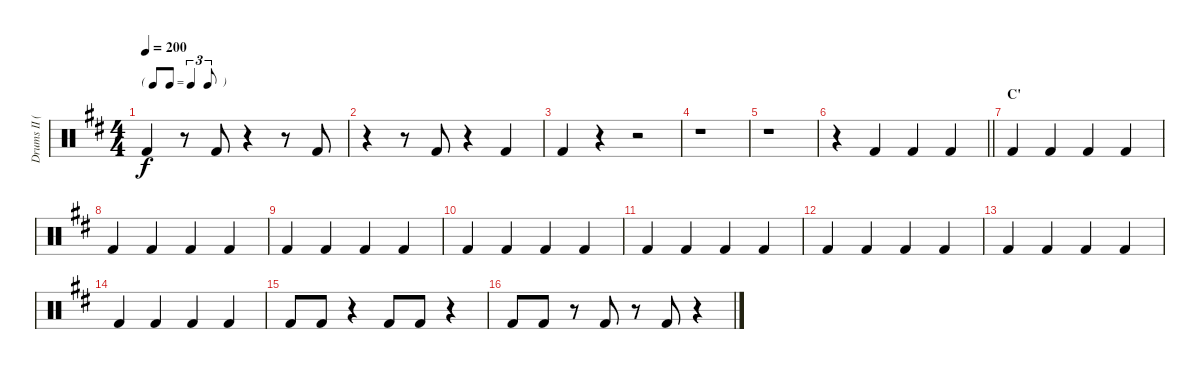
\track ("Drums II (Ruka)" "Drums II (") {instrument percussion}
\staff {score}
\articulation defaults
\ts (4 4)
\tf triplet8th
\tempo 200
\clef neutral
\ks d "Kick (hit) 2".4{dy f}
r.8 "Kick (hit) 2".8 r.4 r.8 "Kick (hit) 2".8 |
r.4 r.8 "Kick (hit) 2".8 r.4 "Kick (hit) 2".4 |
"Kick (hit) 2".4 r.4 r.2 |
r.1 |
r.1 |
\barLineRight lightlight
r.4 "Kick (hit) 2".4 "Kick (hit) 2".4 "Kick (hit) 2".4 |
\section ("" "C'")
"Kick (hit) 2".4 "Kick (hit) 2".4 "Kick (hit) 2".4 "Kick (hit) 2".4 |
"Kick (hit) 2".4 "Kick (hit) 2".4 "Kick (hit) 2".4 "Kick (hit) 2".4 |
"Kick (hit) 2".4 "Kick (hit) 2".4 "Kick (hit) 2".4 "Kick (hit) 2".4 |
"Kick (hit) 2".4 "Kick (hit) 2".4 "Kick (hit) 2".4 "Kick (hit) 2".4 |
"Kick (hit) 2".4 "Kick (hit) 2".4 "Kick (hit) 2".4 "Kick (hit) 2".4 |
"Kick (hit) 2".4 "Kick (hit) 2".4 "Kick (hit) 2".4 "Kick (hit) 2".4 |
"Kick (hit) 2".4 "Kick (hit) 2".4 "Kick (hit) 2".4 "Kick (hit) 2".4 |
"Kick (hit) 2".4 "Kick (hit) 2".4 "Kick (hit) 2".4 "Kick (hit) 2".4 |
"Kick (hit) 2".8 "Kick (hit) 2".8 r.4 "Kick (hit) 2".8 "Kick (hit) 2".8 r.4 |
"Kick (hit) 2".8 "Kick (hit) 2".8 r.8 "Kick (hit) 2".8 r.8 "Kick (hit) 2".8 r.4
